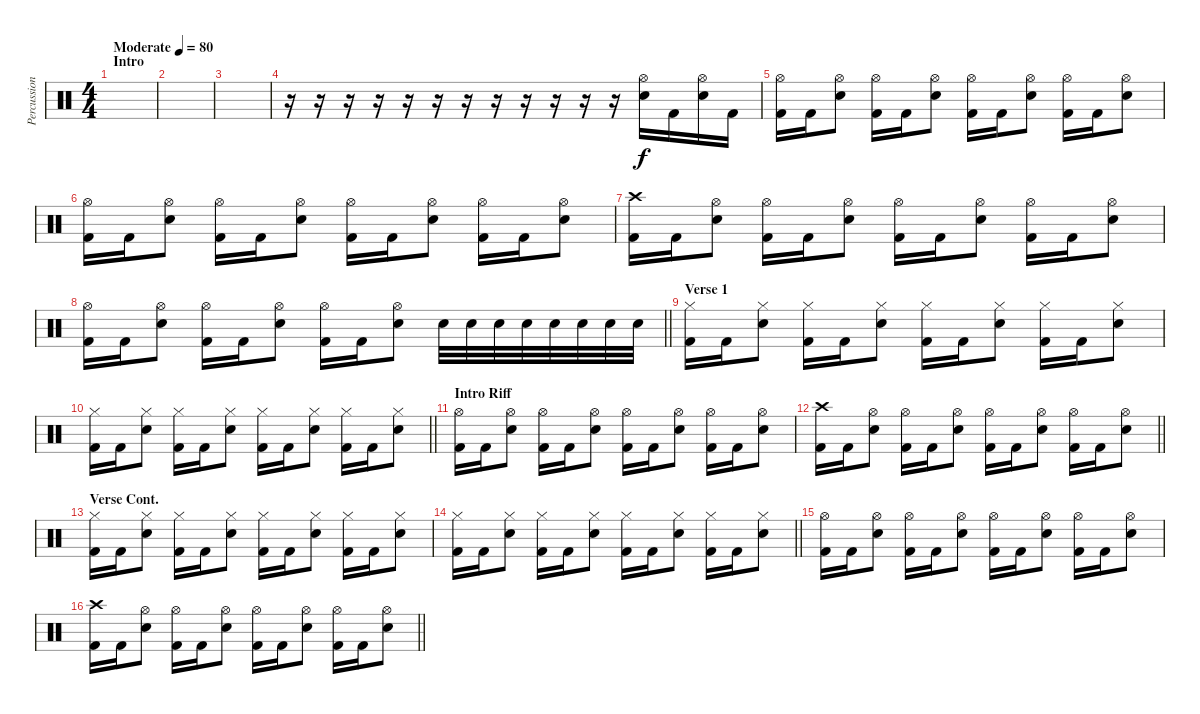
\track ("Percussion" "Percussion") {instrument percussion}
\staff {score}
\articulation defaults
\ts (4 4)
\section ("" "Intro")
\tempo (80 "Moderate")
\clef neutral
\ks c
|
|
|
r.16 r.16 r.16 r.16 r.16 r.16 r.16 r.16 r.16 r.16 r.16 r.16 ("Hi-Hat (open)" "Snare (hit) 2").16 "Kick (hit) 2".16 ("Hi-Hat (open)" "Snare (hit) 2").16 "Kick (hit) 2".16 |
("Hi-Hat (open)" "Kick (hit) 2").16 "Kick (hit) 2".16 ("Hi-Hat (open)" "Snare (hit) 2").8 ("Hi-Hat (open)" "Kick (hit) 2").16 "Kick (hit) 2".16 ("Hi-Hat (open)" "Snare (hit) 2").8 ("Hi-Hat (open)" "Kick (hit) 2").16 "Kick (hit) 2".16 ("Hi-Hat (open)" "Snare (hit) 2").8 ("Hi-Hat (open)" "Kick (hit) 2").16 "Kick (hit) 2".16 ("Hi-Hat (open)" "Snare (hit) 2").8 |
("Hi-Hat (open)" "Kick (hit) 2").16 "Kick (hit) 2".16 ("Hi-Hat (open)" "Snare (hit) 2").8 ("Hi-Hat (open)" "Kick (hit) 2").16 "Kick (hit) 2".16 ("Hi-Hat (open)" "Snare (hit) 2").8 ("Hi-Hat (open)" "Kick (hit) 2").16 "Kick (hit) 2".16 ("Hi-Hat (open)" "Snare (hit) 2").8 ("Hi-Hat (open)" "Kick (hit) 2").16 "Kick (hit) 2".16 ("Hi-Hat (open)" "Snare (hit) 2").8 |
("Crash high (hit)" "Kick (hit) 2").16 "Kick (hit) 2".16 ("Hi-Hat (open)" "Snare (hit) 2").8 ("Hi-Hat (open)" "Kick (hit) 2").16 "Kick (hit) 2".16 ("Hi-Hat (open)" "Snare (hit) 2").8 ("Hi-Hat (open)" "Kick (hit) 2").16 "Kick (hit) 2".16 ("Hi-Hat (open)" "Snare (hit) 2").8 ("Hi-Hat (open)" "Kick (hit) 2").16 "Kick (hit) 2".16 ("Hi-Hat (open)" "Snare (hit) 2").8 |
\barLineRight lightlight
("Hi-Hat (open)" "Kick (hit) 2").16 "Kick (hit) 2".16 ("Hi-Hat (open)" "Snare (hit) 2").8 ("Hi-Hat (open)" "Kick (hit) 2").16 "Kick (hit) 2".16 ("Hi-Hat (open)" "Snare (hit) 2").8 ("Hi-Hat (open)" "Kick (hit) 2").16 "Kick (hit) 2".16 ("Hi-Hat (open)" "Snare (hit) 2").8 "Snare (hit) 2".32 "Snare (hit) 2".32 "Snare (hit) 2".32 "Snare (hit) 2".32 "Snare (hit) 2".32 "Snare (hit) 2".32 "Snare (hit) 2".32 "Snare (hit) 2".32 |
\section ("" "Verse 1")
("Hi-Hat (closed)" "Kick (hit) 2").16 "Kick (hit) 2".16 ("Hi-Hat (closed)" "Snare (hit) 2").8 ("Hi-Hat (closed)" "Kick (hit) 2").16 "Kick (hit) 2".16 ("Hi-Hat (closed)" "Snare (hit) 2").8 ("Hi-Hat (closed)" "Kick (hit) 2").16 "Kick (hit) 2".16 ("Hi-Hat (closed)" "Snare (hit) 2").8 ("Hi-Hat (closed)" "Kick (hit) 2").16 "Kick (hit) 2".16 ("Hi-Hat (closed)" "Snare (hit) 2").8 |
\barLineRight lightlight
("Hi-Hat (closed)" "Kick (hit) 2").16 "Kick (hit) 2".16 ("Hi-Hat (closed)" "Snare (hit) 2").8 ("Hi-Hat (closed)" "Kick (hit) 2").16 "Kick (hit) 2".16 ("Hi-Hat (closed)" "Snare (hit) 2").8 ("Hi-Hat (closed)" "Kick (hit) 2").16 "Kick (hit) 2".16 ("Hi-Hat (closed)" "Snare (hit) 2").8 ("Hi-Hat (closed)" "Kick (hit) 2").16 "Kick (hit) 2".16 ("Hi-Hat (closed)" "Snare (hit) 2").8 |
\section ("" "Intro Riff")
("Hi-Hat (open)" "Kick (hit) 2").16 "Kick (hit) 2".16 ("Hi-Hat (open)" "Snare (hit) 2").8 ("Hi-Hat (open)" "Kick (hit) 2").16 "Kick (hit) 2".16 ("Hi-Hat (open)" "Snare (hit) 2").8 ("Hi-Hat (open)" "Kick (hit) 2").16 "Kick (hit) 2".16 ("Hi-Hat (open)" "Snare (hit) 2").8 ("Hi-Hat (open)" "Kick (hit) 2").16 "Kick (hit) 2".16 ("Hi-Hat (open)" "Snare (hit) 2").8 |
\barLineRight lightlight
("Crash high (hit)" "Kick (hit) 2").16 "Kick (hit) 2".16 ("Hi-Hat (open)" "Snare (hit) 2").8 ("Hi-Hat (open)" "Kick (hit) 2").16 "Kick (hit) 2".16 ("Hi-Hat (open)" "Snare (hit) 2").8 ("Hi-Hat (open)" "Kick (hit) 2").16 "Kick (hit) 2".16 ("Hi-Hat (open)" "Snare (hit) 2").8 ("Hi-Hat (open)" "Kick (hit) 2").16 "Kick (hit) 2".16 ("Hi-Hat (open)" "Snare (hit) 2").8 |
\section ("" "Verse Cont.")
("Hi-Hat (closed)" "Kick (hit) 2").16 "Kick (hit) 2".16 ("Hi-Hat (closed)" "Snare (hit) 2").8 ("Hi-Hat (closed)" "Kick (hit) 2").16 "Kick (hit) 2".16 ("Hi-Hat (closed)" "Snare (hit) 2").8 ("Hi-Hat (closed)" "Kick (hit) 2").16 "Kick (hit) 2".16 ("Hi-Hat (closed)" "Snare (hit) 2").8 ("Hi-Hat (closed)" "Kick (hit) 2").16 "Kick (hit) 2".16 ("Hi-Hat (closed)" "Snare (hit) 2").8 |
\barLineRight lightlight
("Hi-Hat (closed)" "Kick (hit) 2").16 "Kick (hit) 2".16 ("Hi-Hat (closed)" "Snare (hit) 2").8 ("Hi-Hat (closed)" "Kick (hit) 2").16 "Kick (hit) 2".16 ("Hi-Hat (closed)" "Snare (hit) 2").8 ("Hi-Hat (closed)" "Kick (hit) 2").16 "Kick (hit) 2".16 ("Hi-Hat (closed)" "Snare (hit) 2").8 ("Hi-Hat (closed)" "Kick (hit) 2").16 "Kick (hit) 2".16 ("Hi-Hat (closed)" "Snare (hit) 2").8 |
("Hi-Hat (open)" "Kick (hit) 2").16 "Kick (hit) 2".16 ("Hi-Hat (open)" "Snare (hit) 2").8 ("Hi-Hat (open)" "Kick (hit) 2").16 "Kick (hit) 2".16 ("Hi-Hat (open)" "Snare (hit) 2").8 ("Hi-Hat (open)" "Kick (hit) 2").16 "Kick (hit) 2".16 ("Hi-Hat (open)" "Snare (hit) 2").8 ("Hi-Hat (open)" "Kick (hit) 2").16 "Kick (hit) 2".16 ("Hi-Hat (open)" "Snare (hit) 2").8 |
\barLineRight lightlight
("Crash high (hit)" "Kick (hit) 2").16 "Kick (hit) 2".16 ("Hi-Hat (open)" "Snare (hit) 2").8 ("Hi-Hat (open)" "Kick (hit) 2").16 "Kick (hit) 2".16 ("Hi-Hat (open)" "Snare (hit) 2").8 ("Hi-Hat (open)" "Kick (hit) 2").16 "Kick (hit) 2".16 ("Hi-Hat (open)" "Snare (hit) 2").8 ("Hi-Hat (open)" "Kick (hit) 2").16 "Kick (hit) 2".16 ("Hi-Hat (open)" "Snare (hit) 2").8
